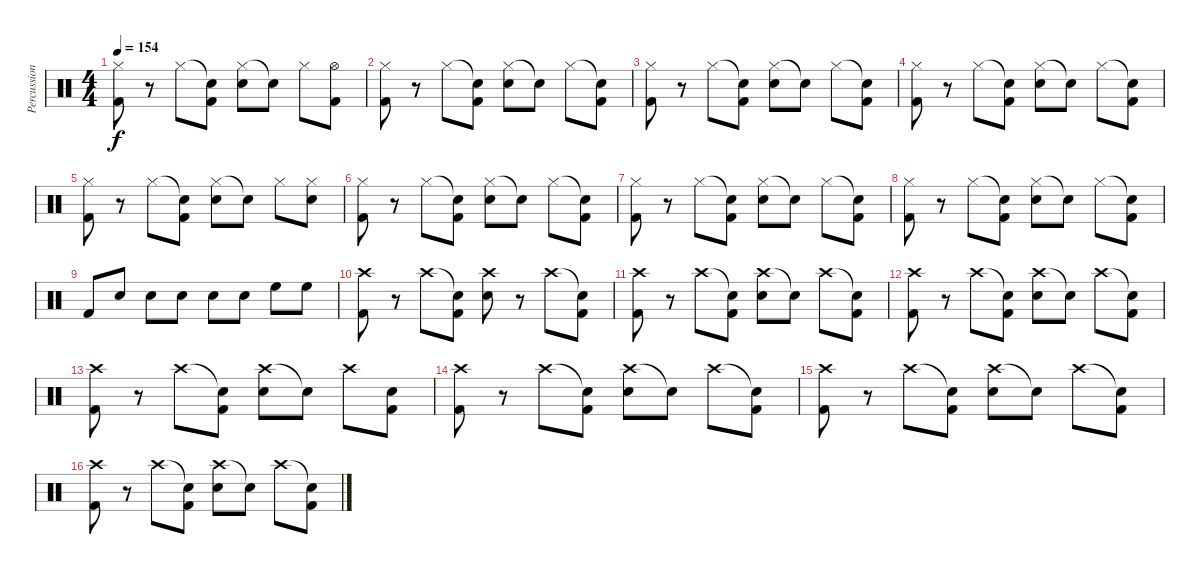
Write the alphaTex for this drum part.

\track ("Percussion" "Percussion") {instrument percussion}
\staff {score}
\articulation defaults
\ts (4 4)
\tempo 154
\clef neutral
\ks c
("Hi-Hat (closed)" "Kick (hit) 2").8{dy f} r.8 "Hi-Hat (closed)".8 ("Snare (hit)"{t} "Kick (hit) 2").8 ("Hi-Hat (closed)" "Snare (hit) 2").8 "Snare (hit)"{t}.8 "Hi-Hat (closed)".8 ("Hi-Hat (open)" "Kick (hit) 2").8 |
("Hi-Hat (closed)" "Kick (hit) 2").8 r.8 "Hi-Hat (closed)".8 ("Snare (hit)"{t} "Kick (hit) 2").8 ("Hi-Hat (closed)" "Snare (hit) 2").8 "Snare (hit)"{t}.8 "Hi-Hat (closed)".8 ("Snare (hit)"{t} "Kick (hit) 2").8 |
("Hi-Hat (closed)" "Kick (hit) 2").8 r.8 "Hi-Hat (closed)".8 ("Snare (hit)"{t} "Kick (hit) 2").8 ("Hi-Hat (closed)" "Snare (hit) 2").8 "Snare (hit)"{t}.8 "Hi-Hat (closed)".8 ("Snare (hit)"{t} "Kick (hit) 2").8 |
("Hi-Hat (closed)" "Kick (hit) 2").8 r.8 "Hi-Hat (closed)".8 ("Snare (hit)"{t} "Kick (hit) 2").8 ("Hi-Hat (closed)" "Snare (hit) 2").8 "Snare (hit)"{t}.8 "Hi-Hat (closed)".8 ("Snare (hit)"{t} "Kick (hit) 2").8 |
("Hi-Hat (closed)" "Kick (hit) 2").8 r.8 "Hi-Hat (closed)".8 ("Snare (hit)"{t} "Kick (hit) 2").8 ("Hi-Hat (closed)" "Snare (hit) 2").8 "Snare (hit)"{t}.8 "Hi-Hat (closed)".8 ("Hi-Hat (closed)" "Snare (hit) 2").8 |
("Hi-Hat (closed)" "Kick (hit) 2").8 r.8 "Hi-Hat (closed)".8 ("Snare (hit)"{t} "Kick (hit) 2").8 ("Hi-Hat (closed)" "Snare (hit) 2").8 "Snare (hit)"{t}.8 "Hi-Hat (closed)".8 ("Snare (hit)"{t} "Kick (hit) 2").8 |
("Hi-Hat (closed)" "Kick (hit) 2").8 r.8 "Hi-Hat (closed)".8 ("Snare (hit)"{t} "Kick (hit) 2").8 ("Hi-Hat (closed)" "Snare (hit) 2").8 "Snare (hit)"{t}.8 "Hi-Hat (closed)".8 ("Snare (hit)"{t} "Kick (hit) 2").8 |
("Hi-Hat (closed)" "Kick (hit) 2").8 r.8 "Hi-Hat (closed)".8 ("Snare (hit)"{t} "Kick (hit) 2").8 ("Hi-Hat (closed)" "Snare (hit) 2").8 "Snare (hit)"{t}.8 "Hi-Hat (closed)".8 ("Snare (hit)"{t} "Kick (hit) 2").8 |
"Kick (hit) 2".8 "Snare (hit) 2".8 "Snare (hit) 2".8 "Snare (hit) 2".8 "Snare (hit) 2".8 "Snare (hit) 2".8 "High Floor Tom (hit)".8 "High Floor Tom (hit)".8 |
("Crash high (hit)" "Kick (hit) 2").8 r.8 "Crash high (hit)".8 ("Snare (hit)"{t} "Kick (hit) 2").8 ("Crash high (hit)" "Snare (hit) 2").8 r.8 "Crash high (hit)".8 ("Snare (hit)"{t} "Kick (hit) 2").8 |
("Crash high (hit)" "Kick (hit) 2").8 r.8 "Crash high (hit)".8 ("Snare (hit)"{t} "Kick (hit) 2").8 ("Crash high (hit)" "Snare (hit) 2").8 "Snare (hit)"{t}.8 "Crash high (hit)".8 ("Snare (hit)"{t} "Kick (hit) 2").8 |
("Crash high (hit)" "Kick (hit) 2").8 r.8 "Crash high (hit)".8 ("Snare (hit)"{t} "Kick (hit) 2").8 ("Crash high (hit)" "Snare (hit) 2").8 "Snare (hit)"{t}.8 "Crash high (hit)".8 ("Snare (hit)"{t} "Kick (hit) 2").8 |
("Crash high (hit)" "Kick (hit) 2").8 r.8 "Crash high (hit)".8 ("Snare (hit)"{t} "Kick (hit) 2").8 ("Crash high (hit)" "Snare (hit) 2").8 "Snare (hit)"{t}.8 "Crash high (hit)".8 ("Snare (hit) 2" "Kick (hit) 2").8 |
("Crash high (hit)" "Kick (hit) 2").8 r.8 "Crash high (hit)".8 ("Snare (hit)"{t} "Kick (hit) 2").8 ("Crash high (hit)" "Snare (hit) 2").8 "Snare (hit)"{t}.8 "Crash high (hit)".8 ("Snare (hit)"{t} "Kick (hit) 2").8 |
("Crash high (hit)" "Kick (hit) 2").8 r.8 "Crash high (hit)".8 ("Snare (hit)"{t} "Kick (hit) 2").8 ("Crash high (hit)" "Snare (hit) 2").8 "Snare (hit)"{t}.8 "Crash high (hit)".8 ("Snare (hit)"{t} "Kick (hit) 2").8 |
("Crash high (hit)" "Kick (hit) 2").8 r.8 "Crash high (hit)".8 ("Snare (hit)"{t} "Kick (hit) 2").8 ("Crash high (hit)" "Snare (hit) 2").8 "Snare (hit)"{t}.8 "Crash high (hit)".8 ("Snare (hit)"{t} "Kick (hit) 2").8
